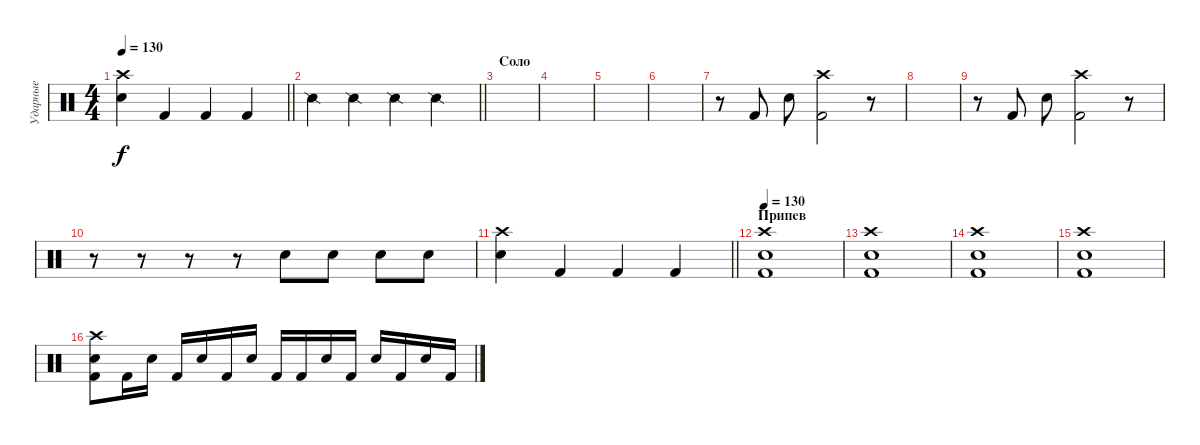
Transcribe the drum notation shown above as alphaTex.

\track ("Ударные" "Ударные") {instrument percussion}
\staff {score}
\articulation defaults
\ts (4 4)
\tempo 130
\clef neutral
\barLineRight lightlight
\ks c
("Crash high (hit)" "Snare (hit) 2").4{dy f} "Kick (hit) 2".4 "Kick (hit) 2".4 "Kick (hit) 2".4 |
\barLineRight lightlight "Snare (side stick) 2".4 "Snare (side stick) 2".4 "Snare (side stick) 2".4 "Snare (side stick) 2".4
|
\section ("" "Соло")
|
|
|
|
r.8 "Kick (hit) 2".8 "Snare (hit) 2".8 ("Crash high (hit)" "Kick (hit) 2").2 r.8 |
|
r.8 "Kick (hit) 2".8 "Snare (hit) 2".8 ("Crash high (hit)" "Kick (hit) 2").2 r.8 |
r.8 r.8 r.8 r.8 "Snare (hit) 2".8 "Snare (hit) 2".8 "Snare (hit) 2".8 "Snare (hit) 2".8 |
\barLineRight lightlight
("Crash high (hit)" "Snare (hit) 2").4 "Kick (hit) 2".4 "Kick (hit) 2".4 "Kick (hit) 2".4 |
\section ("" "Припев")
\tempo 130
("Crash high (hit)" "Kick (hit) 2" "Snare (hit) 2").1 |
("Crash high (hit)" "Kick (hit) 2" "Snare (hit) 2").1 |
("Crash high (hit)" "Kick (hit) 2" "Snare (hit) 2").1 |
("Crash high (hit)" "Kick (hit) 2" "Snare (hit) 2").1 |
("Crash high (hit)" "Kick (hit) 2" "Snare (hit) 2").8 "Kick (hit) 2".16 "Snare (hit) 2".16 "Kick (hit) 2".16 "Snare (hit) 2".16 "Kick (hit) 2".16 "Snare (hit) 2".16 "Kick (hit) 2".16 "Kick (hit) 2".16 "Snare (hit) 2".16 "Kick (hit) 2".16 "Snare (hit) 2".16 "Kick (hit) 2".16 "Snare (hit) 2".16 "Kick (hit) 2".16
